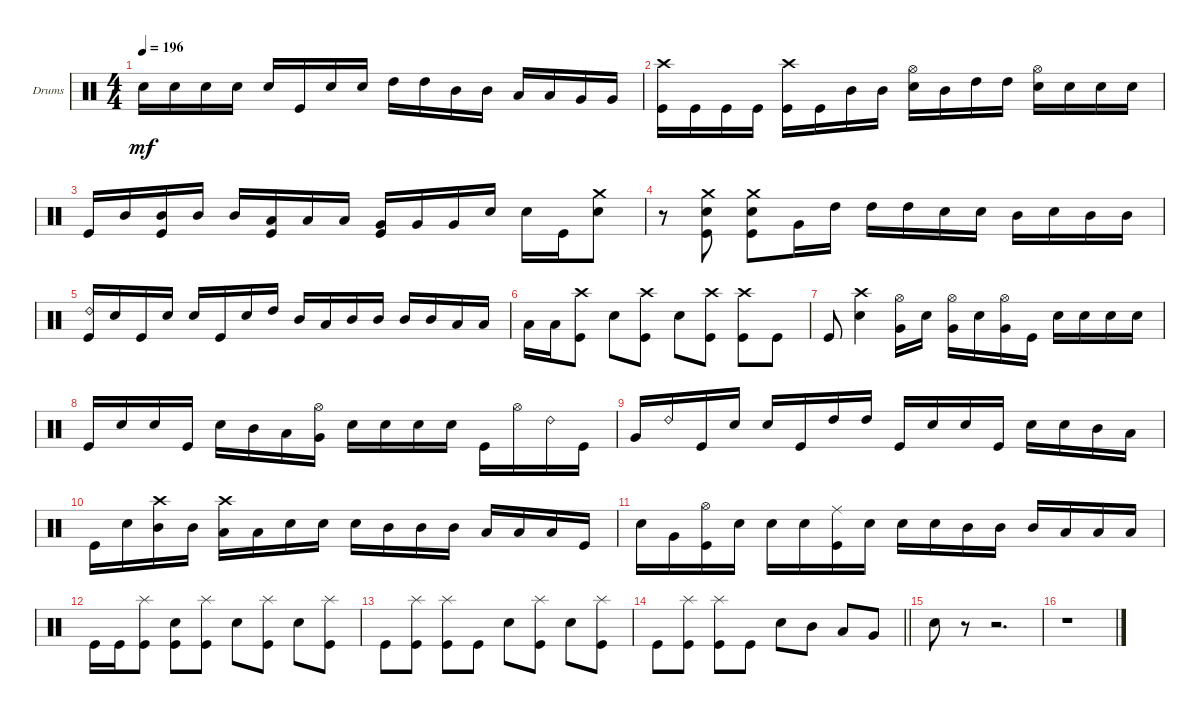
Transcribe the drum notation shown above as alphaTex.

\defaultSystemsLayout 4
\bracketExtendMode groupsimilarinstruments
\firstSystemTrackNameOrientation horizontal
\otherSystemsTrackNameOrientation horizontal
\track ("Drumkit" "Drums") {instrument percussion}
\staff {score}
\articulation defaults
\ts (4 4)
\tempo 196
\clef neutral
\scale
0.472222
\ks c "Snare (hit) 2".16{dy mf} "Snare (hit) 2".16 "Snare (hit) 2".16 "Snare (hit) 2".16 "Snare (hit) 2".16 "Kick (hit)".16 "Snare (hit) 2".16 "Snare (hit) 2".16 "High Tom (hit)".16 "High Tom (hit)".16 "Mid Tom (hit)".16 "Mid Tom (hit)".16 "Low Tom (hit)".16 "Low Tom (hit)".16 "Very Low Tom (hit)".16 "Very Low Tom (hit)".16
|
\scale
0.263889 ("Kick (hit)" "Crash high (hit)").16 "Kick (hit)".16 "Kick (hit)".16 "Kick (hit)".16 ("Kick (hit)" "Crash high (hit)").16 "Kick (hit)".16 "Mid Tom (hit)".16 "Mid Tom (hit)".16 ("Snare (hit) 2" "Hi-Hat (open)").16 "Mid Tom (hit)".16 "High Tom (hit)".16 "High Tom (hit)".16 ("Snare (hit) 2" "Hi-Hat (open)").16 "Snare (hit) 2".16 "Snare (hit) 2".16 "Snare (hit) 2".16 |
\scale
0.263889 "Kick (hit)".16 "Mid Tom (hit)".16 ("Mid Tom (hit)" "Kick (hit)").16 "Mid Tom (hit)".16 "Mid Tom (hit)".16 ("Low Tom (hit)" "Kick (hit)").16 "Low Tom (hit)".16 "Low Tom (hit)".16 ("Very Low Tom (hit)" "Kick (hit)").16 "Very Low Tom (hit)".16 "Very Low Tom (hit)".16 "Snare (hit) 2".16 "Snare (hit) 2".16 "Kick (hit)".16 ("Snare (hit) 2" "Crash medium (hit)").8 |
\scale
0.333333 r.8 ("Kick (hit)" "Snare (hit) 2" "Crash medium (hit)").8 ("Kick (hit)" "Snare (hit) 2" "Crash medium (hit)").8 "Very Low Tom (hit)".16 "High Tom (hit)".16 "High Tom (hit)".16 "High Tom (hit)".16 "Snare (hit) 2".16 "Snare (hit) 2".16 "Mid Tom (hit)".16 "Snare (hit) 2".16 "Mid Tom (hit)".16 "Mid Tom (hit)".16 |
\scale
0.333333 ("Kick (hit)" "Ride (bell) 2").16 "Snare (hit) 2".16 "Kick (hit)".16 "Snare (hit) 2".16 "Snare (hit) 2".16 "Kick (hit)".16 "Snare (hit) 2".16 "High Tom (hit)".16 "Mid Tom (hit)".16 "Low Tom (hit)".16 "Mid Tom (hit)".16 "Mid Tom (hit)".16 "Mid Tom (hit)".16 "Mid Tom (hit)".16 "Low Tom (hit)".16 "Low Tom (hit)".16 |
\scale
0.333333 "Low Tom (hit)".16 "Low Tom (hit)".16 ("Kick (hit)" "Crash high (hit)").8 "Snare (hit) 2".8 ("Kick (hit)" "Crash high (hit)").8 "Snare (hit) 2".8 ("Kick (hit)" "Crash high (hit)").8 ("Kick (hit)" "Crash high (hit)").8 "Kick (hit)".8 |
\scale
0.333333 "Kick (hit)".8 ("Snare (hit) 2" "Crash high (hit)").4 ("Very Low Tom (hit)" "Hi-Hat (open)").16 "Snare (hit) 2".16 ("Very Low Tom (hit)" "Hi-Hat (open)").16 "Snare (hit) 2".16 ("Hi-Hat (open)" "Very Low Tom (hit)").16 "Kick (hit)".16 "Snare (hit) 2".16 "Snare (hit) 2".16 "Snare (hit) 2".16 "Snare (hit) 2".16 |
\scale
0.333333 "Kick (hit)".16 "Snare (hit) 2".16 "Snare (hit) 2".16 "Kick (hit)".16 "Snare (hit) 2".16 "Mid Tom (hit)".16 "Low Tom (hit)".16 ("Hi-Hat (open)" "Very Low Tom (hit)").16 "Snare (hit) 2".16 "Snare (hit) 2".16 "Snare (hit) 2".16 "Snare (hit) 2".16 "Kick (hit)".16 "Hi-Hat (open)".16 "Ride (bell) 2".16 "Kick (hit)".16 |
\scale
0.333333 "Very Low Tom (hit)".16 "Ride (bell) 2".16 "Kick (hit)".16 "Snare (hit) 2".16 "Snare (hit) 2".16 "Kick (hit)".16 "High Tom (hit)".16 "High Tom (hit)".16 "Kick (hit)".16 "Snare (hit) 2".16 "Snare (hit) 2".16 "Kick (hit)".16 "Snare (hit) 2".16 "Snare (hit) 2".16 "Mid Tom (hit)".16 "Low Tom (hit)".16 |
\scale
0.333333 "Kick (hit)".16 "Snare (hit) 2".16 ("Mid Tom (hit)" "Crash high (hit)").16 "Mid Tom (hit)".16 ("Low Tom (hit)" "Crash high (hit)").16 "Low Tom (hit)".16 "Snare (hit) 2".16 "Snare (hit) 2".16 "Snare (hit) 2".16 "Mid Tom (hit)".16 "Mid Tom (hit)".16 "Mid Tom (hit)".16 "Low Tom (hit)".16 "Low Tom (hit)".16 "Low Tom (hit)".16 "Kick (hit)".16 |
\scale
0.333333 "Snare (hit) 2".16 "Very Low Tom (hit)".16 ("Kick (hit)" "Hi-Hat (open)").16 "Snare (hit) 2".16 "Snare (hit) 2".16 "Snare (hit) 2".16 ("Kick (hit)" "Ride (middle)").16 "Snare (hit) 2".16 "Snare (hit) 2".16 "Snare (hit) 2".16 "Mid Tom (hit)".16 "Mid Tom (hit)".16 "Mid Tom (hit)".16 "Low Tom (hit)".16 "Low Tom (hit)".16 "Low Tom (hit)".16 |
\scale
0.333333 "Kick (hit)".16 "Kick (hit)".16 ("Kick (hit)" "Splash (hit)").8 ("Snare (hit) 2" "Kick (hit)").8 ("Kick (hit)" "Splash (hit)").8 "Snare (hit) 2".8 ("Kick (hit)" "Splash (hit)").8 "Snare (hit) 2".8 ("Kick (hit)" "Splash (hit)").8 |
\scale
0.333333 "Kick (hit)".8 ("Kick (hit)" "Splash (hit)").8 ("Kick (hit)" "Splash (hit)").8 "Kick (hit)".8 "Snare (hit) 2".8 ("Kick (hit)" "Splash (hit)").8 "Snare (hit) 2".8 ("Kick (hit)" "Splash (hit)").8 |
\scale
0.333333
\barLineRight lightlight "Kick (hit)".8
("Kick (hit)" "Splash (hit)").8 ("Kick (hit)" "Splash (hit)").8 "Kick (hit)".8 "Snare (hit) 2".8 "Mid Tom (hit)".8 "Low Tom (hit)".8 "Very Low Tom (hit)".8 |
\scale
0.333333 "Snare (hit) 2".8 r.8 r.2{d} |
\scale
0.333333 r.1
